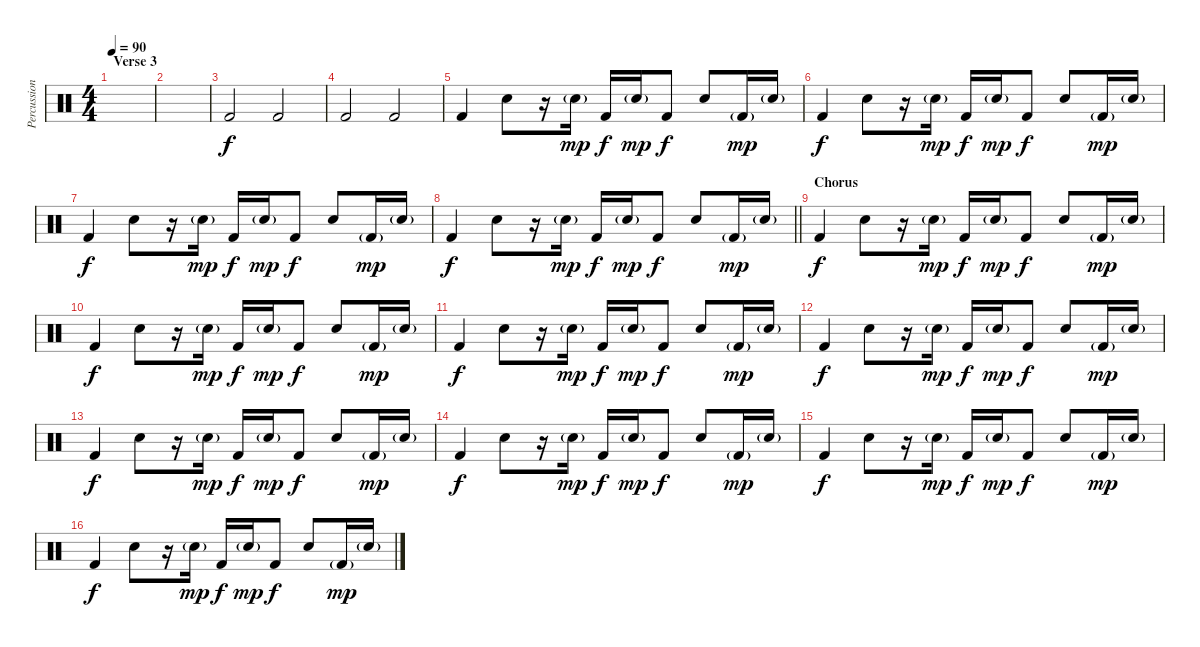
\track ("Percussion" "Percussion") {instrument percussion}
\staff {score}
\articulation defaults
\ts (4 4)
\section ("" "Verse 3")
\tempo 90
\clef neutral
\ks c
|
|
"Kick (hit) 2".2 "Kick (hit) 2".2 |
"Kick (hit) 2".2 "Kick (hit) 2".2 |
"Kick (hit) 2".4 "Snare (hit) 2".8 r.16 "Snare (hit) 2"{g}.16{dy mp} "Kick (hit) 2".16{dy f} "Snare (hit) 2"{g}.16{dy mp} "Kick (hit) 2".8{dy f} "Snare (hit) 2".8 "Kick (hit) 2"{g}.16{dy mp} "Snare (hit) 2"{g}.16 |
"Kick (hit) 2".4{dy f} "Snare (hit) 2".8 r.16 "Snare (hit) 2"{g}.16{dy mp} "Kick (hit) 2".16{dy f} "Snare (hit) 2"{g}.16{dy mp} "Kick (hit) 2".8{dy f} "Snare (hit) 2".8 "Kick (hit) 2"{g}.16{dy mp} "Snare (hit) 2"{g}.16 |
"Kick (hit) 2".4{dy f} "Snare (hit) 2".8 r.16 "Snare (hit) 2"{g}.16{dy mp} "Kick (hit) 2".16{dy f} "Snare (hit) 2"{g}.16{dy mp} "Kick (hit) 2".8{dy f} "Snare (hit) 2".8 "Kick (hit) 2"{g}.16{dy mp} "Snare (hit) 2"{g}.16 |
\barLineRight lightlight "Kick (hit) 2".4{dy f} "Snare (hit) 2".8
r.16 "Snare (hit) 2"{g}.16{dy mp} "Kick (hit) 2".16{dy f} "Snare (hit) 2"{g}.16{dy mp} "Kick (hit) 2".8{dy f} "Snare (hit) 2".8 "Kick (hit) 2"{g}.16{dy mp} "Snare (hit) 2"{g}.16 |
\section ("" "Chorus")
"Kick (hit) 2".4{dy f} "Snare (hit) 2".8 r.16 "Snare (hit) 2"{g}.16{dy mp} "Kick (hit) 2".16{dy f} "Snare (hit) 2"{g}.16{dy mp} "Kick (hit) 2".8{dy f} "Snare (hit) 2".8 "Kick (hit) 2"{g}.16{dy mp} "Snare (hit) 2"{g}.16 |
"Kick (hit) 2".4{dy f} "Snare (hit) 2".8 r.16 "Snare (hit) 2"{g}.16{dy mp} "Kick (hit) 2".16{dy f} "Snare (hit) 2"{g}.16{dy mp} "Kick (hit) 2".8{dy f} "Snare (hit) 2".8 "Kick (hit) 2"{g}.16{dy mp} "Snare (hit) 2"{g}.16 |
"Kick (hit) 2".4{dy f} "Snare (hit) 2".8 r.16 "Snare (hit) 2"{g}.16{dy mp} "Kick (hit) 2".16{dy f} "Snare (hit) 2"{g}.16{dy mp} "Kick (hit) 2".8{dy f} "Snare (hit) 2".8 "Kick (hit) 2"{g}.16{dy mp} "Snare (hit) 2"{g}.16 |
"Kick (hit) 2".4{dy f} "Snare (hit) 2".8 r.16 "Snare (hit) 2"{g}.16{dy mp} "Kick (hit) 2".16{dy f} "Snare (hit) 2"{g}.16{dy mp} "Kick (hit) 2".8{dy f} "Snare (hit) 2".8 "Kick (hit) 2"{g}.16{dy mp} "Snare (hit) 2"{g}.16 |
"Kick (hit) 2".4{dy f} "Snare (hit) 2".8 r.16 "Snare (hit) 2"{g}.16{dy mp} "Kick (hit) 2".16{dy f} "Snare (hit) 2"{g}.16{dy mp} "Kick (hit) 2".8{dy f} "Snare (hit) 2".8 "Kick (hit) 2"{g}.16{dy mp} "Snare (hit) 2"{g}.16 |
"Kick (hit) 2".4{dy f} "Snare (hit) 2".8 r.16 "Snare (hit) 2"{g}.16{dy mp} "Kick (hit) 2".16{dy f} "Snare (hit) 2"{g}.16{dy mp} "Kick (hit) 2".8{dy f} "Snare (hit) 2".8 "Kick (hit) 2"{g}.16{dy mp} "Snare (hit) 2"{g}.16 |
"Kick (hit) 2".4{dy f} "Snare (hit) 2".8 r.16 "Snare (hit) 2"{g}.16{dy mp} "Kick (hit) 2".16{dy f} "Snare (hit) 2"{g}.16{dy mp} "Kick (hit) 2".8{dy f} "Snare (hit) 2".8 "Kick (hit) 2"{g}.16{dy mp} "Snare (hit) 2"{g}.16 |
"Kick (hit) 2".4{dy f} "Snare (hit) 2".8 r.16 "Snare (hit) 2"{g}.16{dy mp} "Kick (hit) 2".16{dy f} "Snare (hit) 2"{g}.16{dy mp} "Kick (hit) 2".8{dy f} "Snare (hit) 2".8 "Kick (hit) 2"{g}.16{dy mp} "Snare (hit) 2"{g}.16
